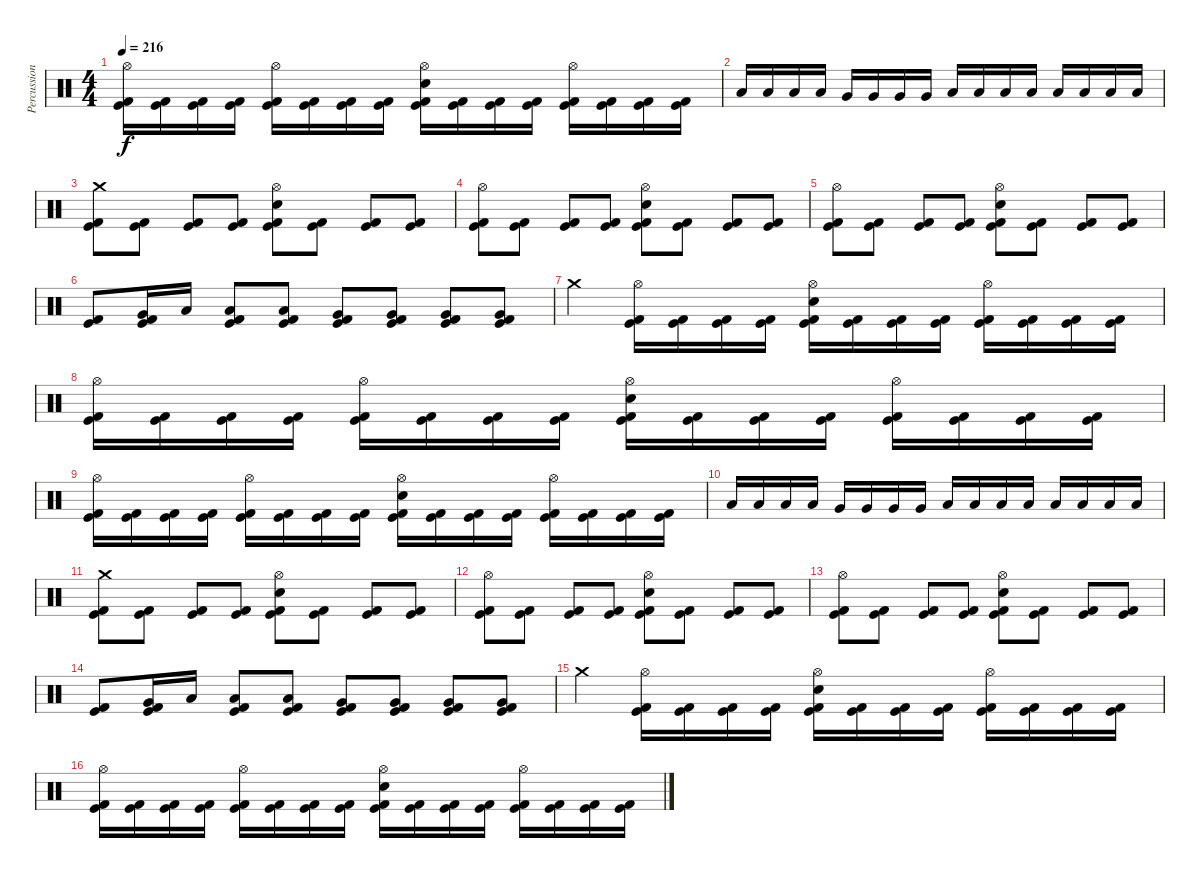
\track ("Percussion" "Percussion") {instrument percussion}
\staff {score}
\articulation defaults
\ts (4 4)
\tempo 216
\clef neutral
\ks c
("Hi-Hat (open)" "Kick (hit)" "Kick (hit) 2").16{dy f} ("Kick (hit)" "Kick (hit) 2").16 ("Kick (hit)" "Kick (hit) 2").16 ("Kick (hit)" "Kick (hit) 2").16 ("Hi-Hat (open)" "Kick (hit)" "Kick (hit) 2").16 ("Kick (hit)" "Kick (hit) 2").16 ("Kick (hit)" "Kick (hit) 2").16 ("Kick (hit)" "Kick (hit) 2").16 ("Hi-Hat (open)" "Electric Snare (hit)" "Kick (hit)" "Kick (hit) 2").16 ("Kick (hit)" "Kick (hit) 2").16 ("Kick (hit)" "Kick (hit) 2").16 ("Kick (hit)" "Kick (hit) 2").16 ("Hi-Hat (open)" "Kick (hit)" "Kick (hit) 2").16 ("Kick (hit)" "Kick (hit) 2").16 ("Kick (hit)" "Kick (hit) 2").16 ("Kick (hit)" "Kick (hit) 2").16 |
"Low Tom (hit)".16 "Low Tom (hit)".16 "Low Tom (hit)".16 "Low Tom (hit)".16 "Very Low Tom (hit)".16 "Very Low Tom (hit)".16 "Very Low Tom (hit)".16 "Very Low Tom (hit)".16 "Low Tom (hit)".16 "Low Tom (hit)".16 "Low Tom (hit)".16 "Low Tom (hit)".16 "Low Floor Tom (hit)".16 "Low Floor Tom (hit)".16 "Low Floor Tom (hit)".16 "Low Floor Tom (hit)".16 |
("Crash medium (hit)" "Kick (hit)" "Kick (hit) 2").8 ("Kick (hit)" "Kick (hit) 2").8 ("Kick (hit)" "Kick (hit) 2").8 ("Kick (hit)" "Kick (hit) 2").8 ("Hi-Hat (open)" "Electric Snare (hit)" "Kick (hit)" "Kick (hit) 2").8 ("Kick (hit)" "Kick (hit) 2").8 ("Kick (hit)" "Kick (hit) 2").8 ("Kick (hit)" "Kick (hit) 2").8 |
("Hi-Hat (open)" "Kick (hit)" "Kick (hit) 2").8 ("Kick (hit)" "Kick (hit) 2").8 ("Kick (hit)" "Kick (hit) 2").8 ("Kick (hit)" "Kick (hit) 2").8 ("Hi-Hat (open)" "Electric Snare (hit)" "Kick (hit)" "Kick (hit) 2").8 ("Kick (hit)" "Kick (hit) 2").8 ("Kick (hit)" "Kick (hit) 2").8 ("Kick (hit)" "Kick (hit) 2").8 |
("Hi-Hat (open)" "Kick (hit)" "Kick (hit) 2").8 ("Kick (hit)" "Kick (hit) 2").8 ("Kick (hit)" "Kick (hit) 2").8 ("Kick (hit)" "Kick (hit) 2").8 ("Hi-Hat (open)" "Electric Snare (hit)" "Kick (hit)" "Kick (hit) 2").8 ("Kick (hit)" "Kick (hit) 2").8 ("Kick (hit)" "Kick (hit) 2").8 ("Kick (hit)" "Kick (hit) 2").8 |
("Kick (hit)" "Kick (hit) 2").8 ("Very Low Tom (hit)" "Kick (hit)" "Kick (hit) 2").16 "Low Tom (hit)".16 ("Low Tom (hit)" "Kick (hit)" "Kick (hit) 2").8 ("Low Tom (hit)" "Kick (hit)" "Kick (hit) 2").8 ("Very Low Tom (hit)" "Kick (hit)" "Kick (hit) 2").8 ("Very Low Tom (hit)" "Kick (hit)" "Kick (hit) 2").8 ("Very Low Tom (hit)" "Kick (hit)" "Kick (hit) 2").8 ("Very Low Tom (hit)" "Kick (hit)" "Kick (hit) 2").8 |
"Crash medium (hit)".4 ("Hi-Hat (open)" "Kick (hit)" "Kick (hit) 2").16 ("Kick (hit)" "Kick (hit) 2").16 ("Kick (hit)" "Kick (hit) 2").16 ("Kick (hit)" "Kick (hit) 2").16 ("Hi-Hat (open)" "Electric Snare (hit)" "Kick (hit)" "Kick (hit) 2").16 ("Kick (hit)" "Kick (hit) 2").16 ("Kick (hit)" "Kick (hit) 2").16 ("Kick (hit)" "Kick (hit) 2").16 ("Hi-Hat (open)" "Kick (hit)" "Kick (hit) 2").16 ("Kick (hit)" "Kick (hit) 2").16 ("Kick (hit)" "Kick (hit) 2").16 ("Kick (hit)" "Kick (hit) 2").16 |
("Hi-Hat (open)" "Kick (hit)" "Kick (hit) 2").16 ("Kick (hit)" "Kick (hit) 2").16 ("Kick (hit)" "Kick (hit) 2").16 ("Kick (hit)" "Kick (hit) 2").16 ("Hi-Hat (open)" "Kick (hit)" "Kick (hit) 2").16 ("Kick (hit)" "Kick (hit) 2").16 ("Kick (hit)" "Kick (hit) 2").16 ("Kick (hit)" "Kick (hit) 2").16 ("Hi-Hat (open)" "Electric Snare (hit)" "Kick (hit)" "Kick (hit) 2").16 ("Kick (hit)" "Kick (hit) 2").16 ("Kick (hit)" "Kick (hit) 2").16 ("Kick (hit)" "Kick (hit) 2").16 ("Hi-Hat (open)" "Kick (hit)" "Kick (hit) 2").16 ("Kick (hit)" "Kick (hit) 2").16 ("Kick (hit)" "Kick (hit) 2").16 ("Kick (hit)" "Kick (hit) 2").16 |
("Hi-Hat (open)" "Kick (hit)" "Kick (hit) 2").16 ("Kick (hit)" "Kick (hit) 2").16 ("Kick (hit)" "Kick (hit) 2").16 ("Kick (hit)" "Kick (hit) 2").16 ("Hi-Hat (open)" "Kick (hit)" "Kick (hit) 2").16 ("Kick (hit)" "Kick (hit) 2").16 ("Kick (hit)" "Kick (hit) 2").16 ("Kick (hit)" "Kick (hit) 2").16 ("Hi-Hat (open)" "Electric Snare (hit)" "Kick (hit)" "Kick (hit) 2").16 ("Kick (hit)" "Kick (hit) 2").16 ("Kick (hit)" "Kick (hit) 2").16 ("Kick (hit)" "Kick (hit) 2").16 ("Hi-Hat (open)" "Kick (hit)" "Kick (hit) 2").16 ("Kick (hit)" "Kick (hit) 2").16 ("Kick (hit)" "Kick (hit) 2").16 ("Kick (hit)" "Kick (hit) 2").16 |
"Low Tom (hit)".16 "Low Tom (hit)".16 "Low Tom (hit)".16 "Low Tom (hit)".16 "Very Low Tom (hit)".16 "Very Low Tom (hit)".16 "Very Low Tom (hit)".16 "Very Low Tom (hit)".16 "Low Tom (hit)".16 "Low Tom (hit)".16 "Low Tom (hit)".16 "Low Tom (hit)".16 "Low Floor Tom (hit)".16 "Low Floor Tom (hit)".16 "Low Floor Tom (hit)".16 "Low Floor Tom (hit)".16 |
("Crash medium (hit)" "Kick (hit)" "Kick (hit) 2").8 ("Kick (hit)" "Kick (hit) 2").8 ("Kick (hit)" "Kick (hit) 2").8 ("Kick (hit)" "Kick (hit) 2").8 ("Hi-Hat (open)" "Electric Snare (hit)" "Kick (hit)" "Kick (hit) 2").8 ("Kick (hit)" "Kick (hit) 2").8 ("Kick (hit)" "Kick (hit) 2").8 ("Kick (hit)" "Kick (hit) 2").8 |
("Hi-Hat (open)" "Kick (hit)" "Kick (hit) 2").8 ("Kick (hit)" "Kick (hit) 2").8 ("Kick (hit)" "Kick (hit) 2").8 ("Kick (hit)" "Kick (hit) 2").8 ("Hi-Hat (open)" "Electric Snare (hit)" "Kick (hit)" "Kick (hit) 2").8 ("Kick (hit)" "Kick (hit) 2").8 ("Kick (hit)" "Kick (hit) 2").8 ("Kick (hit)" "Kick (hit) 2").8 |
("Hi-Hat (open)" "Kick (hit)" "Kick (hit) 2").8 ("Kick (hit)" "Kick (hit) 2").8 ("Kick (hit)" "Kick (hit) 2").8 ("Kick (hit)" "Kick (hit) 2").8 ("Hi-Hat (open)" "Electric Snare (hit)" "Kick (hit)" "Kick (hit) 2").8 ("Kick (hit)" "Kick (hit) 2").8 ("Kick (hit)" "Kick (hit) 2").8 ("Kick (hit)" "Kick (hit) 2").8 |
("Kick (hit)" "Kick (hit) 2").8 ("Very Low Tom (hit)" "Kick (hit)" "Kick (hit) 2").16 "Low Tom (hit)".16 ("Low Tom (hit)" "Kick (hit)" "Kick (hit) 2").8 ("Low Tom (hit)" "Kick (hit)" "Kick (hit) 2").8 ("Very Low Tom (hit)" "Kick (hit)" "Kick (hit) 2").8 ("Very Low Tom (hit)" "Kick (hit)" "Kick (hit) 2").8 ("Very Low Tom (hit)" "Kick (hit)" "Kick (hit) 2").8 ("Very Low Tom (hit)" "Kick (hit)" "Kick (hit) 2").8 |
"Crash medium (hit)".4 ("Hi-Hat (open)" "Kick (hit)" "Kick (hit) 2").16 ("Kick (hit)" "Kick (hit) 2").16 ("Kick (hit)" "Kick (hit) 2").16 ("Kick (hit)" "Kick (hit) 2").16 ("Hi-Hat (open)" "Electric Snare (hit)" "Kick (hit)" "Kick (hit) 2").16 ("Kick (hit)" "Kick (hit) 2").16 ("Kick (hit)" "Kick (hit) 2").16 ("Kick (hit)" "Kick (hit) 2").16 ("Hi-Hat (open)" "Kick (hit)" "Kick (hit) 2").16 ("Kick (hit)" "Kick (hit) 2").16 ("Kick (hit)" "Kick (hit) 2").16 ("Kick (hit)" "Kick (hit) 2").16 |
("Hi-Hat (open)" "Kick (hit)" "Kick (hit) 2").16 ("Kick (hit)" "Kick (hit) 2").16 ("Kick (hit)" "Kick (hit) 2").16 ("Kick (hit)" "Kick (hit) 2").16 ("Hi-Hat (open)" "Kick (hit)" "Kick (hit) 2").16 ("Kick (hit)" "Kick (hit) 2").16 ("Kick (hit)" "Kick (hit) 2").16 ("Kick (hit)" "Kick (hit) 2").16 ("Hi-Hat (open)" "Electric Snare (hit)" "Kick (hit)" "Kick (hit) 2").16 ("Kick (hit)" "Kick (hit) 2").16 ("Kick (hit)" "Kick (hit) 2").16 ("Kick (hit)" "Kick (hit) 2").16 ("Hi-Hat (open)" "Kick (hit)" "Kick (hit) 2").16 ("Kick (hit)" "Kick (hit) 2").16 ("Kick (hit)" "Kick (hit) 2").16 ("Kick (hit)" "Kick (hit) 2").16
